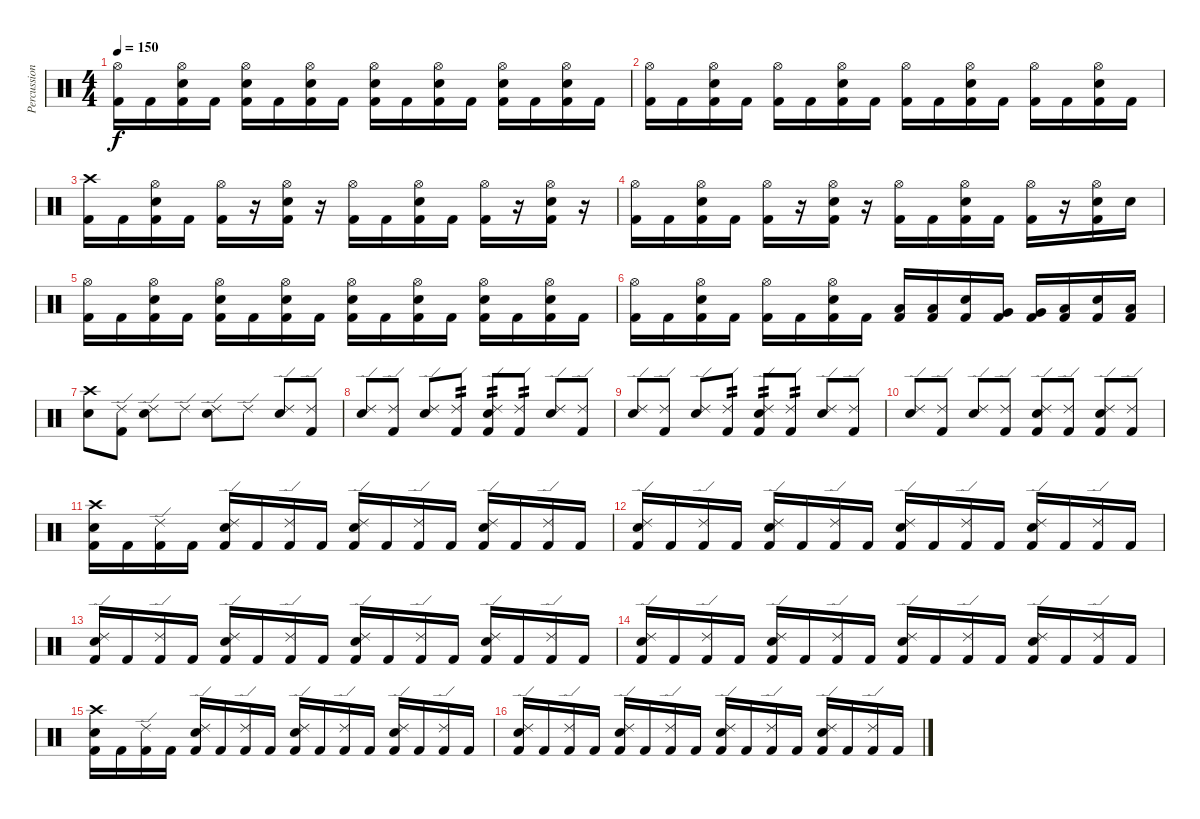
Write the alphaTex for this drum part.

\track ("Percussion" "Percussion") {instrument percussion}
\staff {score}
\articulation defaults
\ts (4 4)
\tempo 150
\clef neutral
\ks c
("Hi-Hat (open)" "Kick (hit) 2").16{dy f} "Kick (hit) 2".16 ("Hi-Hat (open)" "Electric Snare (hit)" "Kick (hit) 2").16 "Kick (hit) 2".16 ("Hi-Hat (open)" "Electric Snare (hit)" "Kick (hit) 2").16 "Kick (hit) 2".16 ("Hi-Hat (open)" "Electric Snare (hit)" "Kick (hit) 2").16 "Kick (hit) 2".16 ("Hi-Hat (open)" "Electric Snare (hit)" "Kick (hit) 2").16 "Kick (hit) 2".16 ("Hi-Hat (open)" "Electric Snare (hit)" "Kick (hit) 2").16 "Kick (hit) 2".16 ("Hi-Hat (open)" "Electric Snare (hit)" "Kick (hit) 2").16 "Kick (hit) 2".16 ("Hi-Hat (open)" "Electric Snare (hit)" "Kick (hit) 2").16 "Kick (hit) 2".16 |
("Hi-Hat (open)" "Kick (hit) 2").16 "Kick (hit) 2".16 ("Hi-Hat (open)" "Electric Snare (hit)" "Kick (hit) 2").16 "Kick (hit) 2".16 ("Hi-Hat (open)" "Kick (hit) 2").16 "Kick (hit) 2".16 ("Hi-Hat (open)" "Electric Snare (hit)" "Kick (hit) 2").16 "Kick (hit) 2".16 ("Hi-Hat (open)" "Kick (hit) 2").16 "Kick (hit) 2".16 ("Hi-Hat (open)" "Electric Snare (hit)" "Kick (hit) 2").16 "Kick (hit) 2".16 ("Hi-Hat (open)" "Kick (hit) 2").16 "Kick (hit) 2".16 ("Hi-Hat (open)" "Electric Snare (hit)" "Kick (hit) 2").16 "Kick (hit) 2".16 |
("Crash high (hit)" "Kick (hit) 2").16 "Kick (hit) 2".16 ("Hi-Hat (open)" "Electric Snare (hit)" "Kick (hit) 2").16 "Kick (hit) 2".16 ("Hi-Hat (open)" "Kick (hit) 2").16 r.16 ("Hi-Hat (open)" "Electric Snare (hit)" "Kick (hit) 2").16 r.16 ("Hi-Hat (open)" "Kick (hit) 2").16 "Kick (hit) 2".16 ("Hi-Hat (open)" "Electric Snare (hit)" "Kick (hit) 2").16 "Kick (hit) 2".16 ("Hi-Hat (open)" "Kick (hit) 2").16 r.16 ("Hi-Hat (open)" "Electric Snare (hit)" "Kick (hit) 2").16 r.16 |
("Hi-Hat (open)" "Kick (hit) 2").16 "Kick (hit) 2".16 ("Hi-Hat (open)" "Electric Snare (hit)" "Kick (hit) 2").16 "Kick (hit) 2".16 ("Hi-Hat (open)" "Kick (hit) 2").16 r.16 ("Hi-Hat (open)" "Electric Snare (hit)" "Kick (hit) 2").16 r.16 ("Hi-Hat (open)" "Kick (hit) 2").16 "Kick (hit) 2".16 ("Hi-Hat (open)" "Electric Snare (hit)" "Kick (hit) 2").16 "Kick (hit) 2".16 ("Hi-Hat (open)" "Kick (hit) 2").16 r.16 ("Hi-Hat (open)" "Electric Snare (hit)" "Kick (hit) 2").16 "Electric Snare (hit)".16 |
("Hi-Hat (open)" "Kick (hit) 2").16 "Kick (hit) 2".16 ("Hi-Hat (open)" "Electric Snare (hit)" "Kick (hit) 2").16 "Kick (hit) 2".16 ("Hi-Hat (open)" "Electric Snare (hit)" "Kick (hit) 2").16 "Kick (hit) 2".16 ("Hi-Hat (open)" "Electric Snare (hit)" "Kick (hit) 2").16 "Kick (hit) 2".16 ("Hi-Hat (open)" "Electric Snare (hit)" "Kick (hit) 2").16 "Kick (hit) 2".16 ("Hi-Hat (open)" "Electric Snare (hit)" "Kick (hit) 2").16 "Kick (hit) 2".16 ("Hi-Hat (open)" "Electric Snare (hit)" "Kick (hit) 2").16 "Kick (hit) 2".16 ("Hi-Hat (open)" "Electric Snare (hit)" "Kick (hit) 2").16 "Kick (hit) 2".16 |
("Hi-Hat (open)" "Kick (hit) 2").16 "Kick (hit) 2".16 ("Hi-Hat (open)" "Electric Snare (hit)" "Kick (hit) 2").16 "Kick (hit) 2".16 ("Hi-Hat (open)" "Kick (hit) 2").16 "Kick (hit) 2".16 ("Hi-Hat (open)" "Electric Snare (hit)" "Kick (hit) 2").16 "Kick (hit) 2".16 ("Low Tom (hit)" "Kick (hit) 2").16 ("Low Tom (hit)" "Kick (hit) 2").16 ("Electric Snare (hit)" "Kick (hit) 2").16 ("Very Low Tom (hit)" "Kick (hit) 2").16 ("Very Low Tom (hit)" "Kick (hit) 2").16 ("Low Floor Tom (hit)" "Kick (hit) 2").16 ("Electric Snare (hit)" "Kick (hit) 2").16 ("Low Floor Tom (hit)" "Kick (hit) 2").16 |
("Electric Snare (hit)" "Crash high (hit)").8 ("Ride (edge) 2" "Kick (hit) 2").8 ("Electric Snare (hit)" "Ride (edge) 2").8 "Ride (edge) 2".8 ("Electric Snare (hit)" "Ride (edge) 2").8 "Ride (edge) 2".8 ("Electric Snare (hit)" "Ride (edge) 2").8 ("Ride (edge) 2" "Kick (hit) 2").8 |
("Electric Snare (hit)" "Ride (edge) 2").8 ("Ride (edge) 2" "Kick (hit) 2").8 ("Electric Snare (hit)" "Ride (edge) 2").8 ("Ride (edge) 2" "Kick (hit) 2").8{tp 2} ("Electric Snare (hit)" "Ride (edge) 2" "Kick (hit) 2").8{tp 2} ("Ride (edge) 2" "Kick (hit) 2").8{tp 2} ("Electric Snare (hit)" "Ride (edge) 2").8 ("Ride (edge) 2" "Kick (hit) 2").8 |
("Electric Snare (hit)" "Ride (edge) 2").8 ("Ride (edge) 2" "Kick (hit) 2").8 ("Electric Snare (hit)" "Ride (edge) 2").8 ("Ride (edge) 2" "Kick (hit) 2").8{tp 2} ("Electric Snare (hit)" "Ride (edge) 2" "Kick (hit) 2").8{tp 2} ("Ride (edge) 2" "Kick (hit) 2").8{tp 2} ("Electric Snare (hit)" "Ride (edge) 2").8 ("Ride (edge) 2" "Kick (hit) 2").8 |
("Electric Snare (hit)" "Ride (edge) 2").8 ("Ride (edge) 2" "Kick (hit) 2").8 ("Electric Snare (hit)" "Ride (edge) 2").8 ("Ride (edge) 2" "Kick (hit) 2").8 ("Electric Snare (hit)" "Ride (edge) 2" "Kick (hit) 2").8 ("Ride (edge) 2" "Kick (hit) 2").8 ("Electric Snare (hit)" "Ride (edge) 2" "Kick (hit) 2").8 ("Ride (edge) 2" "Kick (hit) 2").8 |
("Electric Snare (hit)" "Crash high (hit)" "Kick (hit) 2").16 "Kick (hit) 2".16 ("Ride (edge) 2" "Kick (hit) 2").16 "Kick (hit) 2".16 ("Electric Snare (hit)" "Ride (edge) 2" "Kick (hit) 2").16 "Kick (hit) 2".16 ("Ride (edge) 2" "Kick (hit) 2").16 "Kick (hit) 2".16 ("Electric Snare (hit)" "Ride (edge) 2" "Kick (hit) 2").16 "Kick (hit) 2".16 ("Ride (edge) 2" "Kick (hit) 2").16 "Kick (hit) 2".16 ("Electric Snare (hit)" "Ride (edge) 2" "Kick (hit) 2").16 "Kick (hit) 2".16 ("Ride (edge) 2" "Kick (hit) 2").16 "Kick (hit) 2".16 |
("Electric Snare (hit)" "Ride (edge) 2" "Kick (hit) 2").16 "Kick (hit) 2".16 ("Ride (edge) 2" "Kick (hit) 2").16 "Kick (hit) 2".16 ("Electric Snare (hit)" "Ride (edge) 2" "Kick (hit) 2").16 "Kick (hit) 2".16 ("Ride (edge) 2" "Kick (hit) 2").16 "Kick (hit) 2".16 ("Electric Snare (hit)" "Ride (edge) 2" "Kick (hit) 2").16 "Kick (hit) 2".16 ("Ride (edge) 2" "Kick (hit) 2").16 "Kick (hit) 2".16 ("Electric Snare (hit)" "Ride (edge) 2" "Kick (hit) 2").16 "Kick (hit) 2".16 ("Ride (edge) 2" "Kick (hit) 2").16 "Kick (hit) 2".16 |
("Electric Snare (hit)" "Ride (edge) 2" "Kick (hit) 2").16 "Kick (hit) 2".16 ("Ride (edge) 2" "Kick (hit) 2").16 "Kick (hit) 2".16 ("Electric Snare (hit)" "Ride (edge) 2" "Kick (hit) 2").16 "Kick (hit) 2".16 ("Ride (edge) 2" "Kick (hit) 2").16 "Kick (hit) 2".16 ("Electric Snare (hit)" "Ride (edge) 2" "Kick (hit) 2").16 "Kick (hit) 2".16 ("Ride (edge) 2" "Kick (hit) 2").16 "Kick (hit) 2".16 ("Electric Snare (hit)" "Ride (edge) 2" "Kick (hit) 2").16 "Kick (hit) 2".16 ("Ride (edge) 2" "Kick (hit) 2").16 "Kick (hit) 2".16 |
("Electric Snare (hit)" "Ride (edge) 2" "Kick (hit) 2").16 "Kick (hit) 2".16 ("Ride (edge) 2" "Kick (hit) 2").16 "Kick (hit) 2".16 ("Electric Snare (hit)" "Ride (edge) 2" "Kick (hit) 2").16 "Kick (hit) 2".16 ("Ride (edge) 2" "Kick (hit) 2").16 "Kick (hit) 2".16 ("Electric Snare (hit)" "Ride (edge) 2" "Kick (hit) 2").16 "Kick (hit) 2".16 ("Ride (edge) 2" "Kick (hit) 2").16 "Kick (hit) 2".16 ("Electric Snare (hit)" "Ride (edge) 2" "Kick (hit) 2").16 "Kick (hit) 2".16 ("Ride (edge) 2" "Kick (hit) 2").16 "Kick (hit) 2".16 |
("Electric Snare (hit)" "Crash high (hit)" "Kick (hit) 2").16 "Kick (hit) 2".16 ("Ride (edge) 2" "Kick (hit) 2").16 "Kick (hit) 2".16 ("Electric Snare (hit)" "Ride (edge) 2" "Kick (hit) 2").16 "Kick (hit) 2".16 ("Ride (edge) 2" "Kick (hit) 2").16 "Kick (hit) 2".16 ("Electric Snare (hit)" "Ride (edge) 2" "Kick (hit) 2").16 "Kick (hit) 2".16 ("Ride (edge) 2" "Kick (hit) 2").16 "Kick (hit) 2".16 ("Electric Snare (hit)" "Ride (edge) 2" "Kick (hit) 2").16 "Kick (hit) 2".16 ("Ride (edge) 2" "Kick (hit) 2").16 "Kick (hit) 2".16 |
("Electric Snare (hit)" "Ride (edge) 2" "Kick (hit) 2").16 "Kick (hit) 2".16 ("Ride (edge) 2" "Kick (hit) 2").16 "Kick (hit) 2".16 ("Electric Snare (hit)" "Ride (edge) 2" "Kick (hit) 2").16 "Kick (hit) 2".16 ("Ride (edge) 2" "Kick (hit) 2").16 "Kick (hit) 2".16 ("Electric Snare (hit)" "Ride (edge) 2" "Kick (hit) 2").16 "Kick (hit) 2".16 ("Ride (edge) 2" "Kick (hit) 2").16 "Kick (hit) 2".16 ("Electric Snare (hit)" "Ride (edge) 2" "Kick (hit) 2").16 "Kick (hit) 2".16 ("Ride (edge) 2" "Kick (hit) 2").16 "Kick (hit) 2".16
